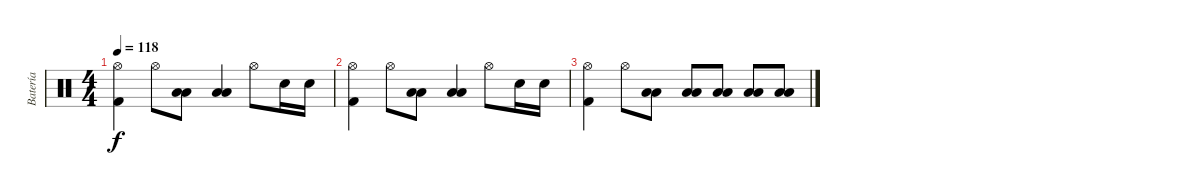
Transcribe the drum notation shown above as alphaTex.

\track ("Batería" "Batería") {instrument percussion}
\staff {score}
\articulation defaults
\ts (4 4)
\tempo 118
\clef neutral
\ks c
("Kick (hit) 2" "Hi-Hat (open)").4{dy f} "Hi-Hat (open)".8 ("Low Tom (hit)" "Low Floor Tom (hit)").8 ("Low Tom (hit)" "Low Floor Tom (hit)").4 "Hi-Hat (open)".8 "Electric Snare (hit)".16 "Electric Snare (hit)".16 |
("Kick (hit) 2" "Hi-Hat (open)").4 "Hi-Hat (open)".8 ("Low Tom (hit)" "Low Floor Tom (hit)").8 ("Low Tom (hit)" "Low Floor Tom (hit)").4 "Hi-Hat (open)".8 "Electric Snare (hit)".16 "Electric Snare (hit)".16 |
("Kick (hit) 2" "Hi-Hat (open)").4 "Hi-Hat (open)".8 ("Low Tom (hit)" "Low Floor Tom (hit)").8 ("Low Tom (hit)" "Low Floor Tom (hit)").8 ("Low Tom (hit)" "Low Floor Tom (hit)").8 ("Low Tom (hit)" "Low Floor Tom (hit)").8 ("Low Tom (hit)" "Low Floor Tom (hit)").8
